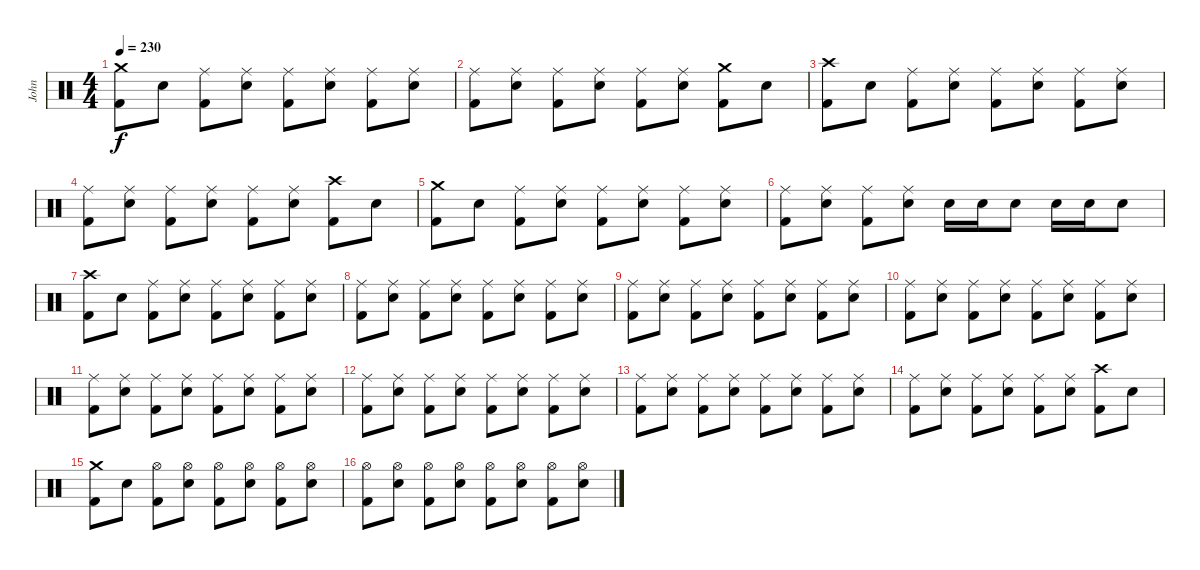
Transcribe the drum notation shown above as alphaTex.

\track ("John" "John") {instrument percussion}
\staff {score}
\articulation defaults
\ts (4 4)
\tempo 230
\clef neutral
\ks c
("Crash medium (hit)" "Kick (hit) 2").8{dy f} "Electric Snare (hit)".8 ("Ride (middle)" "Kick (hit) 2").8 ("Ride (middle)" "Electric Snare (hit)").8 ("Ride (middle)" "Kick (hit) 2").8 ("Ride (middle)" "Electric Snare (hit)").8 ("Ride (middle)" "Kick (hit) 2").8 ("Ride (middle)" "Electric Snare (hit)").8 |
("Ride (middle)" "Kick (hit) 2").8 ("Ride (middle)" "Electric Snare (hit)").8 ("Ride (middle)" "Kick (hit) 2").8 ("Ride (middle)" "Electric Snare (hit)").8 ("Ride (middle)" "Kick (hit) 2").8 ("Ride (middle)" "Electric Snare (hit)").8 ("Crash medium (hit)" "Kick (hit) 2").8 "Electric Snare (hit)".8 |
("Crash high (hit)" "Kick (hit) 2").8 "Electric Snare (hit)".8 ("Ride (middle)" "Kick (hit) 2").8 ("Ride (middle)" "Electric Snare (hit)").8 ("Ride (middle)" "Kick (hit) 2").8 ("Ride (middle)" "Electric Snare (hit)").8 ("Ride (middle)" "Kick (hit) 2").8 ("Ride (middle)" "Electric Snare (hit)").8 |
("Ride (middle)" "Kick (hit) 2").8 ("Ride (middle)" "Electric Snare (hit)").8 ("Ride (middle)" "Kick (hit) 2").8 ("Ride (middle)" "Electric Snare (hit)").8 ("Ride (middle)" "Kick (hit) 2").8 ("Ride (middle)" "Electric Snare (hit)").8 ("Crash high (hit)" "Kick (hit) 2").8 "Electric Snare (hit)".8 |
("Crash medium (hit)" "Kick (hit) 2").8 "Electric Snare (hit)".8 ("Ride (middle)" "Kick (hit) 2").8 ("Ride (middle)" "Electric Snare (hit)").8 ("Ride (middle)" "Kick (hit) 2").8 ("Ride (middle)" "Electric Snare (hit)").8 ("Ride (middle)" "Kick (hit) 2").8 ("Ride (middle)" "Electric Snare (hit)").8 |
("Ride (middle)" "Kick (hit) 2").8 ("Ride (middle)" "Electric Snare (hit)").8 ("Ride (middle)" "Kick (hit) 2").8 ("Ride (middle)" "Electric Snare (hit)").8 "Electric Snare (hit)".16 "Electric Snare (hit)".16 "Electric Snare (hit)".8 "Electric Snare (hit)".16 "Electric Snare (hit)".16 "Electric Snare (hit)".8 |
("Crash high (hit)" "Kick (hit) 2").8 "Electric Snare (hit)".8 ("Ride (middle)" "Kick (hit) 2").8 ("Ride (middle)" "Electric Snare (hit)").8 ("Ride (middle)" "Kick (hit) 2").8 ("Ride (middle)" "Electric Snare (hit)").8 ("Ride (middle)" "Kick (hit) 2").8 ("Ride (middle)" "Electric Snare (hit)").8 |
("Ride (middle)" "Kick (hit) 2").8 ("Ride (middle)" "Electric Snare (hit)").8 ("Ride (middle)" "Kick (hit) 2").8 ("Ride (middle)" "Electric Snare (hit)").8 ("Ride (middle)" "Kick (hit) 2").8 ("Ride (middle)" "Electric Snare (hit)").8 ("Ride (middle)" "Kick (hit) 2").8 ("Ride (middle)" "Electric Snare (hit)").8 |
("Ride (middle)" "Kick (hit) 2").8 ("Ride (middle)" "Electric Snare (hit)").8 ("Ride (middle)" "Kick (hit) 2").8 ("Ride (middle)" "Electric Snare (hit)").8 ("Ride (middle)" "Kick (hit) 2").8 ("Ride (middle)" "Electric Snare (hit)").8 ("Ride (middle)" "Kick (hit) 2").8 ("Ride (middle)" "Electric Snare (hit)").8 |
("Ride (middle)" "Kick (hit) 2").8 ("Ride (middle)" "Electric Snare (hit)").8 ("Ride (middle)" "Kick (hit) 2").8 ("Ride (middle)" "Electric Snare (hit)").8 ("Ride (middle)" "Kick (hit) 2").8 ("Ride (middle)" "Electric Snare (hit)").8 ("Ride (middle)" "Kick (hit) 2").8 ("Ride (middle)" "Electric Snare (hit)").8 |
("Ride (middle)" "Kick (hit) 2").8 ("Ride (middle)" "Electric Snare (hit)").8 ("Ride (middle)" "Kick (hit) 2").8 ("Ride (middle)" "Electric Snare (hit)").8 ("Ride (middle)" "Kick (hit) 2").8 ("Ride (middle)" "Electric Snare (hit)").8 ("Ride (middle)" "Kick (hit) 2").8 ("Ride (middle)" "Electric Snare (hit)").8 |
("Ride (middle)" "Kick (hit) 2").8 ("Ride (middle)" "Electric Snare (hit)").8 ("Ride (middle)" "Kick (hit) 2").8 ("Ride (middle)" "Electric Snare (hit)").8 ("Ride (middle)" "Kick (hit) 2").8 ("Ride (middle)" "Electric Snare (hit)").8 ("Ride (middle)" "Kick (hit) 2").8 ("Ride (middle)" "Electric Snare (hit)").8 |
("Ride (middle)" "Kick (hit) 2").8 ("Ride (middle)" "Electric Snare (hit)").8 ("Ride (middle)" "Kick (hit) 2").8 ("Ride (middle)" "Electric Snare (hit)").8 ("Ride (middle)" "Kick (hit) 2").8 ("Ride (middle)" "Electric Snare (hit)").8 ("Ride (middle)" "Kick (hit) 2").8 ("Ride (middle)" "Electric Snare (hit)").8 |
("Ride (middle)" "Kick (hit) 2").8 ("Ride (middle)" "Electric Snare (hit)").8 ("Ride (middle)" "Kick (hit) 2").8 ("Ride (middle)" "Electric Snare (hit)").8 ("Ride (middle)" "Kick (hit) 2").8 ("Ride (middle)" "Electric Snare (hit)").8 ("Crash high (hit)" "Kick (hit) 2").8 "Electric Snare (hit)".8 |
("Crash medium (hit)" "Kick (hit) 2").8 "Electric Snare (hit)".8 ("Hi-Hat (open)" "Kick (hit) 2").8 ("Hi-Hat (open)" "Electric Snare (hit)").8 ("Hi-Hat (open)" "Kick (hit) 2").8 ("Hi-Hat (open)" "Electric Snare (hit)").8 ("Hi-Hat (open)" "Kick (hit) 2").8 ("Hi-Hat (open)" "Electric Snare (hit)").8 |
("Hi-Hat (open)" "Kick (hit) 2").8 ("Hi-Hat (open)" "Electric Snare (hit)").8 ("Hi-Hat (open)" "Kick (hit) 2").8 ("Hi-Hat (open)" "Electric Snare (hit)").8 ("Hi-Hat (open)" "Kick (hit) 2").8 ("Hi-Hat (open)" "Electric Snare (hit)").8 ("Hi-Hat (open)" "Kick (hit) 2").8 ("Hi-Hat (open)" "Electric Snare (hit)").8
